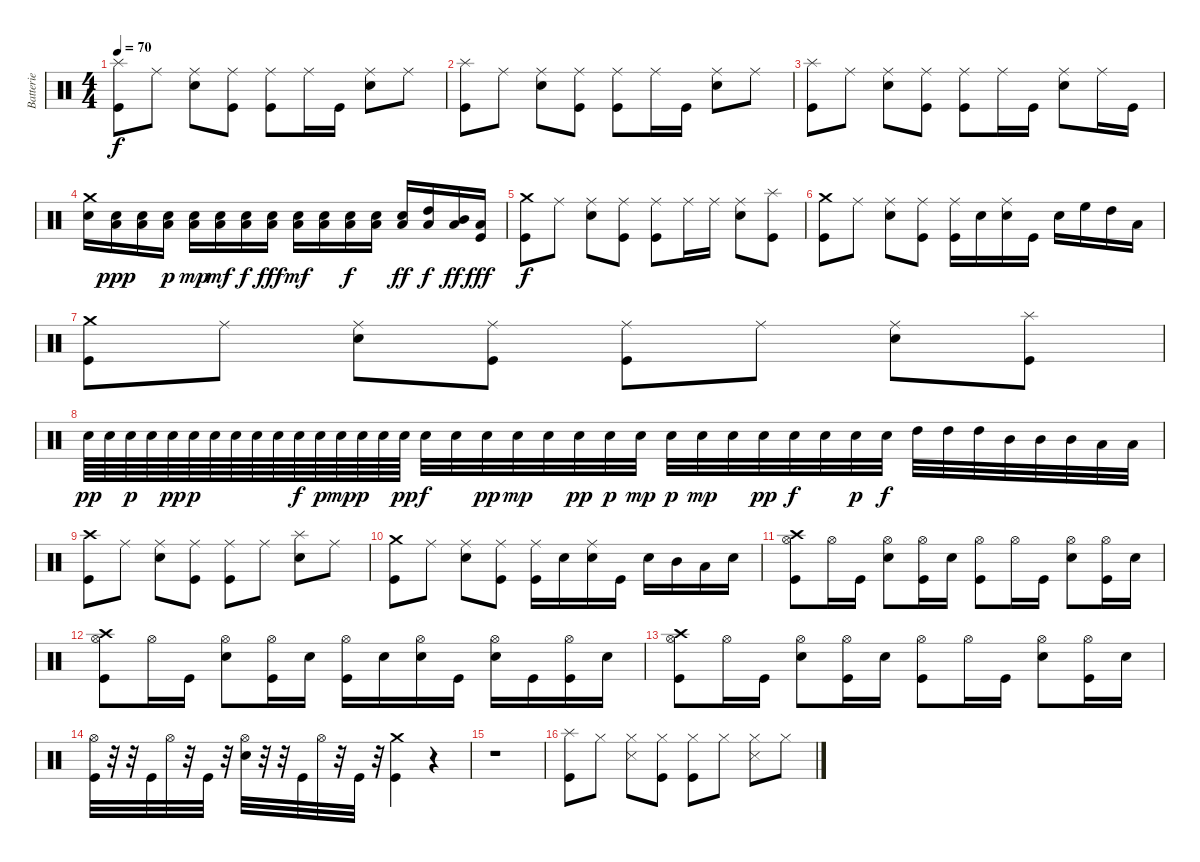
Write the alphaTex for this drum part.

\track ("Batterie" "Batterie") {instrument percussion}
\staff {score}
\articulation defaults
\ts (4 4)
\tempo 70
\clef neutral
\ks c
("Splash (hit)" "Kick (hit)").8{dy f} "Ride (middle)".8 ("Ride (middle)" "Snare (hit) 2").8 ("Ride (middle)" "Kick (hit)").8 ("Ride (middle)" "Kick (hit)").8 "Ride (middle)".16 "Kick (hit)".16 ("Ride (middle)" "Snare (hit) 2").8 "Ride (middle)".8 |
("Splash (hit)" "Kick (hit)").8 "Ride (middle)".8 ("Ride (middle)" "Snare (hit) 2").8 ("Ride (middle)" "Kick (hit)").8 ("Ride (middle)" "Kick (hit)").8 "Ride (middle)".16 "Kick (hit)".16 ("Ride (middle)" "Snare (hit) 2").8 "Ride (middle)".8 |
("Splash (hit)" "Kick (hit)").8 "Ride (middle)".8 ("Ride (middle)" "Snare (hit) 2").8 ("Ride (middle)" "Kick (hit)").8 ("Ride (middle)" "Kick (hit)").8 "Ride (middle)".16 "Kick (hit)".16 ("Ride (middle)" "Snare (hit) 2").8 "Ride (middle)".16 "Kick (hit)".16 |
("Crash medium (hit)" "Snare (hit) 2").16 ("Snare (hit) 2" "Low Tom (hit)").16{dy ppp} ("Snare (hit) 2" "Low Tom (hit)").16 ("Snare (hit) 2" "Low Tom (hit)").16{dy p} ("Snare (hit) 2" "Low Tom (hit)").16{dy mp} ("Snare (hit) 2" "Low Tom (hit)").16{dy mf} ("Snare (hit) 2" "Low Tom (hit)").16{dy f} ("Snare (hit) 2" "Low Tom (hit)").16{dy fff} ("Snare (hit) 2" "Low Tom (hit)").16{dy mf} ("Snare (hit) 2" "Low Tom (hit)").16 ("Snare (hit) 2" "Low Tom (hit)").16{dy f} ("Snare (hit) 2" "Low Tom (hit)").16 ("Snare (hit) 2" "Low Tom (hit)").16{dy ff} ("High Tom (hit)" "Low Tom (hit)").16{dy f} ("Mid Tom (hit)" "Low Tom (hit)").16{dy ff} ("Low Tom (hit)" "Kick (hit)").16{dy fff} |
("Crash medium (hit)" "Kick (hit)").8{dy f} "Ride (middle)".8 ("Ride (middle)" "Snare (hit) 2").8 ("Ride (middle)" "Kick (hit)").8 ("Ride (middle)" "Kick (hit)").8 "Ride (middle)".16 "Ride (middle)".16 ("Ride (middle)" "Snare (hit) 2").8 ("Splash (hit)" "Kick (hit)").8 |
("Crash medium (hit)" "Kick (hit)").8 "Ride (middle)".8 ("Ride (middle)" "Snare (hit) 2").8 ("Ride (middle)" "Kick (hit)").8 ("Ride (middle)" "Kick (hit)").16 "Snare (hit) 2".16 ("Ride (middle)" "Snare (hit) 2").16 "Kick (hit)".16 "Snare (hit) 2".16 "High Floor Tom (hit)".16 "High Tom (hit)".16 "Low Tom (hit)".16 |
("Crash medium (hit)" "Kick (hit)").8 "Ride (middle)".8 ("Ride (middle)" "Snare (hit) 2").8 ("Ride (middle)" "Kick (hit)").8 ("Ride (middle)" "Kick (hit)").8 "Ride (middle)".8 ("Ride (middle)" "Snare (hit) 2").8 ("Splash (hit)" "Kick (hit)").8 |
"Snare (hit) 2".64{dy pp} "Snare (hit) 2".64 "Snare (hit) 2".64{dy p} "Snare (hit) 2".64 "Snare (hit) 2".64{dy pp} "Snare (hit) 2".64{dy p} "Snare (hit) 2".64 "Snare (hit) 2".64 "Snare (hit) 2".64 "Snare (hit) 2".64 "Snare (hit) 2".64{dy f} "Snare (hit) 2".64{dy p} "Snare (hit) 2".64{dy mp} "Snare (hit) 2".64{dy p} "Snare (hit) 2".64 "Snare (hit) 2".64{dy pp} "Snare (hit) 2".32{dy f} "Snare (hit) 2".32 "Snare (hit) 2".32{dy pp} "Snare (hit) 2".32{dy mp} "Snare (hit) 2".32 "Snare (hit) 2".32{dy pp} "Snare (hit) 2".32{dy p} "Snare (hit) 2".32{dy mp} "Snare (hit) 2".32{dy p} "Snare (hit) 2".32{dy mp} "Snare (hit) 2".32 "Snare (hit) 2".32{dy pp} "Snare (hit) 2".32{dy f} "Snare (hit) 2".32 "Snare (hit) 2".32{dy p} "Snare (hit) 2".32{dy f} "High Tom (hit)".32 "High Tom (hit)".32 "High Tom (hit)".32 "Mid Tom (hit)".32 "Mid Tom (hit)".32 "Mid Tom (hit)".32 "Low Tom (hit)".32 "Low Tom (hit)".32 |
("Crash high (hit)" "Kick (hit)").8 "Ride (middle)".8 ("Ride (middle)" "Snare (hit) 2").8 ("Ride (middle)" "Kick (hit)").8 ("Ride (middle)" "Kick (hit)").8 "Ride (middle)".8 ("Splash (hit)" "Snare (hit) 2").8 "Ride (middle)".8 |
("Crash medium (hit)" "Kick (hit)").8 "Ride (middle)".8 ("Ride (middle)" "Snare (hit) 2").8 ("Ride (middle)" "Kick (hit)").8 ("Ride (middle)" "Kick (hit)").16 "Snare (hit) 2".16 ("Ride (middle)" "Snare (hit) 2").16 "Kick (hit)".16 "Snare (hit) 2".16 "Mid Tom (hit)".16 "Low Tom (hit)".16 "Snare (hit) 2".16 |
("Hi-Hat (open)" "Crash high (hit)" "Kick (hit)").8 "Hi-Hat (open)".16 "Kick (hit)".16 ("Hi-Hat (open)" "Snare (hit) 2").8 ("Hi-Hat (open)" "Kick (hit)").16 "Snare (hit) 2".16 ("Hi-Hat (open)" "Kick (hit)").8 "Hi-Hat (open)".16 "Kick (hit)".16 ("Hi-Hat (open)" "Snare (hit) 2").8 ("Hi-Hat (open)" "Kick (hit)").16 "Snare (hit) 2".16 |
("Hi-Hat (open)" "Crash high (hit)" "Kick (hit)").8 "Hi-Hat (open)".16 "Kick (hit)".16 ("Hi-Hat (open)" "Snare (hit) 2").8 ("Hi-Hat (open)" "Kick (hit)").16 "Snare (hit) 2".16 ("Hi-Hat (open)" "Kick (hit)").16 "Snare (hit) 2".16 ("Hi-Hat (open)" "Snare (hit) 2").16 "Kick (hit)".16 ("Hi-Hat (open)" "Snare (hit) 2").16 "Kick (hit)".16 ("Hi-Hat (open)" "Kick (hit)").16 "Snare (hit) 2".16 |
("Hi-Hat (open)" "Crash high (hit)" "Kick (hit)").8 "Hi-Hat (open)".16 "Kick (hit)".16 ("Hi-Hat (open)" "Snare (hit) 2").8 ("Hi-Hat (open)" "Kick (hit)").16 "Snare (hit) 2".16 ("Hi-Hat (open)" "Kick (hit)").8 "Hi-Hat (open)".16 "Kick (hit)".16 ("Hi-Hat (open)" "Snare (hit) 2").8 ("Hi-Hat (open)" "Kick (hit)").16 "Snare (hit) 2".16 |
("Hi-Hat (open)" "Kick (hit)").32 r.32 r.32 "Kick (hit)".32 "Hi-Hat (open)".32 r.32 "Kick (hit)".32 r.32 ("Hi-Hat (open)" "Snare (hit) 2").32 r.32 r.32 "Kick (hit)".32 "Hi-Hat (open)".32 r.32 "Kick (hit)".32 r.32 ("Crash medium (hit)" "Kick (hit)").4 r.4 |
r.1 |
("Splash (hit)" "Kick (hit)").8 "Hi-Hat (closed)".8 ("Hi-Hat (closed)" "Snare (side stick) 3").8 ("Hi-Hat (closed)" "Kick (hit)").8 ("Hi-Hat (closed)" "Kick (hit)").8 "Hi-Hat (closed)".8 ("Hi-Hat (closed)" "Snare (side stick) 3").8 "Hi-Hat (closed)".8
